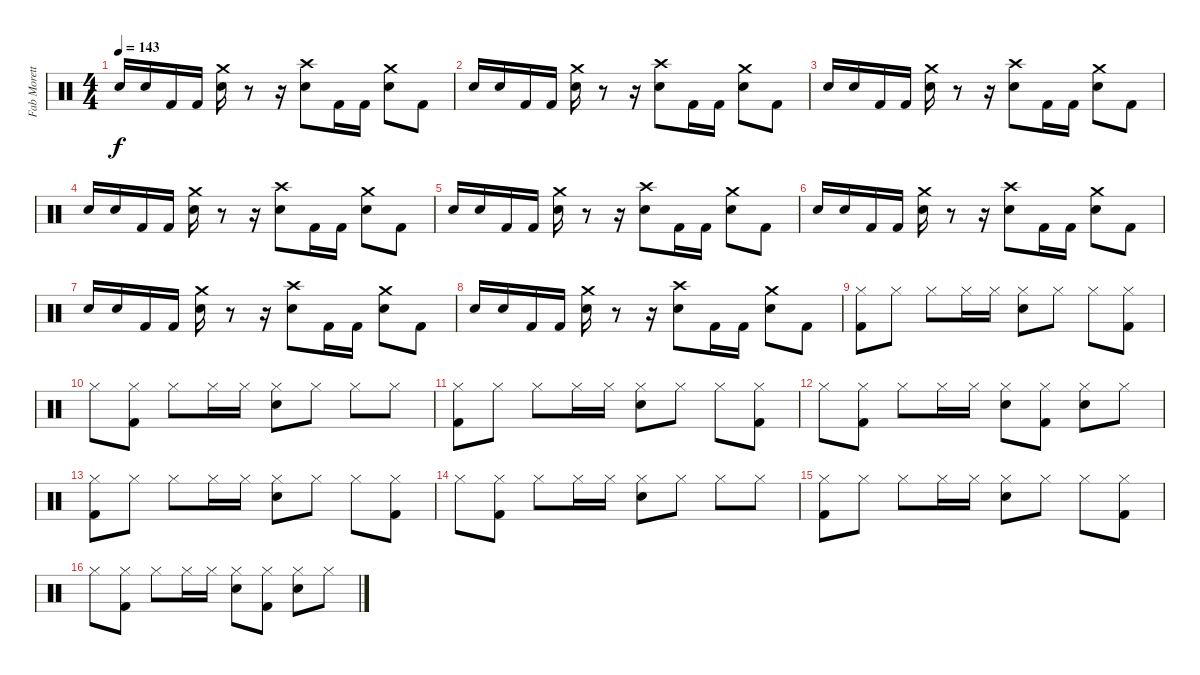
\track ("Fab Moretti" "Fab Morett") {instrument percussion}
\staff {score}
\articulation defaults
\ts (4 4)
\tempo 143
\clef neutral
\ks c "Electric Snare (hit)".16{dy f} "Electric Snare (hit)".16 "Kick (hit) 2".16 "Kick (hit) 2".16
("Crash medium (hit)" "Electric Snare (hit)").16 r.8 r.16 ("Crash high (hit)" "Electric Snare (hit)").8 "Kick (hit) 2".16 "Kick (hit) 2".16 ("Crash medium (hit)" "Electric Snare (hit)").8 "Kick (hit) 2".8 |
"Electric Snare (hit)".16 "Electric Snare (hit)".16 "Kick (hit) 2".16 "Kick (hit) 2".16 ("Crash medium (hit)" "Electric Snare (hit)").16 r.8 r.16 ("Crash high (hit)" "Electric Snare (hit)").8 "Kick (hit) 2".16 "Kick (hit) 2".16 ("Crash medium (hit)" "Electric Snare (hit)").8 "Kick (hit) 2".8 |
"Electric Snare (hit)".16 "Electric Snare (hit)".16 "Kick (hit) 2".16 "Kick (hit) 2".16 ("Crash medium (hit)" "Electric Snare (hit)").16 r.8 r.16 ("Crash high (hit)" "Electric Snare (hit)").8 "Kick (hit) 2".16 "Kick (hit) 2".16 ("Crash medium (hit)" "Electric Snare (hit)").8 "Kick (hit) 2".8 |
"Electric Snare (hit)".16 "Electric Snare (hit)".16 "Kick (hit) 2".16 "Kick (hit) 2".16 ("Crash medium (hit)" "Electric Snare (hit)").16 r.8 r.16 ("Crash high (hit)" "Electric Snare (hit)").8 "Kick (hit) 2".16 "Kick (hit) 2".16 ("Crash medium (hit)" "Electric Snare (hit)").8 "Kick (hit) 2".8 |
"Electric Snare (hit)".16 "Electric Snare (hit)".16 "Kick (hit) 2".16 "Kick (hit) 2".16 ("Crash medium (hit)" "Electric Snare (hit)").16 r.8 r.16 ("Crash high (hit)" "Electric Snare (hit)").8 "Kick (hit) 2".16 "Kick (hit) 2".16 ("Crash medium (hit)" "Electric Snare (hit)").8 "Kick (hit) 2".8 |
"Electric Snare (hit)".16 "Electric Snare (hit)".16 "Kick (hit) 2".16 "Kick (hit) 2".16 ("Crash medium (hit)" "Electric Snare (hit)").16 r.8 r.16 ("Crash high (hit)" "Electric Snare (hit)").8 "Kick (hit) 2".16 "Kick (hit) 2".16 ("Crash medium (hit)" "Electric Snare (hit)").8 "Kick (hit) 2".8 |
"Electric Snare (hit)".16 "Electric Snare (hit)".16 "Kick (hit) 2".16 "Kick (hit) 2".16 ("Crash medium (hit)" "Electric Snare (hit)").16 r.8 r.16 ("Crash high (hit)" "Electric Snare (hit)").8 "Kick (hit) 2".16 "Kick (hit) 2".16 ("Crash medium (hit)" "Electric Snare (hit)").8 "Kick (hit) 2".8 |
"Electric Snare (hit)".16 "Electric Snare (hit)".16 "Kick (hit) 2".16 "Kick (hit) 2".16 ("Crash medium (hit)" "Electric Snare (hit)").16 r.8 r.16 ("Crash high (hit)" "Electric Snare (hit)").8 "Kick (hit) 2".16 "Kick (hit) 2".16 ("Crash medium (hit)" "Electric Snare (hit)").8 "Kick (hit) 2".8 |
("Hi-Hat (closed)" "Kick (hit) 2").8 "Hi-Hat (closed)".8 "Hi-Hat (closed)".8 "Hi-Hat (closed)".16 "Hi-Hat (closed)".16 ("Hi-Hat (closed)" "Electric Snare (hit)").8 "Hi-Hat (closed)".8 "Hi-Hat (closed)".8 ("Hi-Hat (closed)" "Kick (hit) 2").8 |
"Hi-Hat (closed)".8 ("Hi-Hat (closed)" "Kick (hit) 2").8 "Hi-Hat (closed)".8 "Hi-Hat (closed)".16 "Hi-Hat (closed)".16 ("Hi-Hat (closed)" "Electric Snare (hit)").8 "Hi-Hat (closed)".8 "Hi-Hat (closed)".8 "Hi-Hat (closed)".8 |
("Hi-Hat (closed)" "Kick (hit) 2").8 "Hi-Hat (closed)".8 "Hi-Hat (closed)".8 "Hi-Hat (closed)".16 "Hi-Hat (closed)".16 ("Hi-Hat (closed)" "Electric Snare (hit)").8 "Hi-Hat (closed)".8 "Hi-Hat (closed)".8 ("Hi-Hat (closed)" "Kick (hit) 2").8 |
"Hi-Hat (closed)".8 ("Hi-Hat (closed)" "Kick (hit) 2").8 "Hi-Hat (closed)".8 "Hi-Hat (closed)".16 "Hi-Hat (closed)".16 ("Hi-Hat (closed)" "Electric Snare (hit)").8 ("Hi-Hat (closed)" "Kick (hit) 2").8 ("Hi-Hat (closed)" "Electric Snare (hit)").8 "Hi-Hat (closed)".8 |
("Hi-Hat (closed)" "Kick (hit) 2").8 "Hi-Hat (closed)".8 "Hi-Hat (closed)".8 "Hi-Hat (closed)".16 "Hi-Hat (closed)".16 ("Hi-Hat (closed)" "Electric Snare (hit)").8 "Hi-Hat (closed)".8 "Hi-Hat (closed)".8 ("Hi-Hat (closed)" "Kick (hit) 2").8 |
"Hi-Hat (closed)".8 ("Hi-Hat (closed)" "Kick (hit) 2").8 "Hi-Hat (closed)".8 "Hi-Hat (closed)".16 "Hi-Hat (closed)".16 ("Hi-Hat (closed)" "Electric Snare (hit)").8 "Hi-Hat (closed)".8 "Hi-Hat (closed)".8 "Hi-Hat (closed)".8 |
("Hi-Hat (closed)" "Kick (hit) 2").8 "Hi-Hat (closed)".8 "Hi-Hat (closed)".8 "Hi-Hat (closed)".16 "Hi-Hat (closed)".16 ("Hi-Hat (closed)" "Electric Snare (hit)").8 "Hi-Hat (closed)".8 "Hi-Hat (closed)".8 ("Hi-Hat (closed)" "Kick (hit) 2").8 |
"Hi-Hat (closed)".8 ("Hi-Hat (closed)" "Kick (hit) 2").8 "Hi-Hat (closed)".8 "Hi-Hat (closed)".16 "Hi-Hat (closed)".16 ("Hi-Hat (closed)" "Electric Snare (hit)").8 ("Hi-Hat (closed)" "Kick (hit) 2").8 ("Hi-Hat (closed)" "Electric Snare (hit)").8 "Hi-Hat (closed)".8
